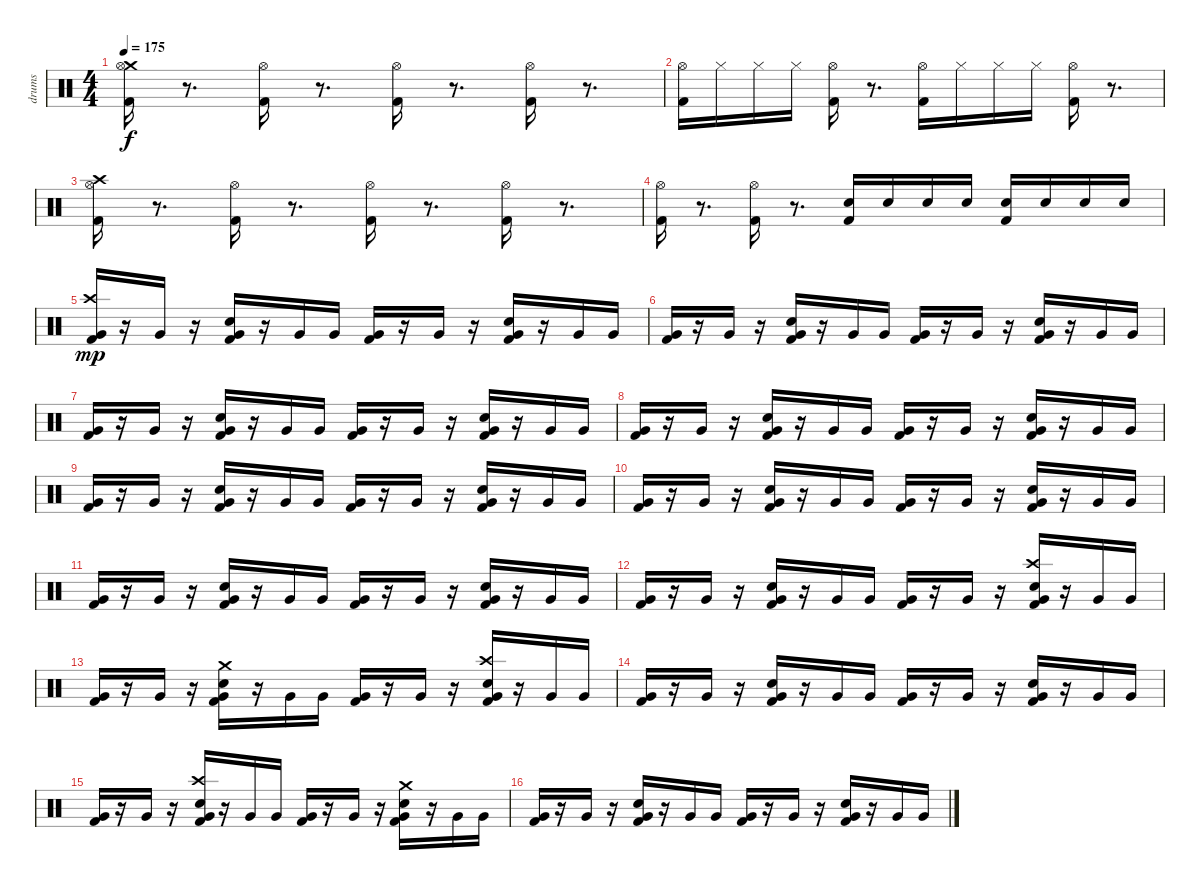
\track ("drums" "drums") {instrument percussion}
\staff {score}
\articulation defaults
\ts (4 4)
\tempo 175
\clef neutral
\ks c
("Crash medium (hit)" "Kick (hit) 2" "Hi-Hat (open)").16{dy f} r.8{d} ("Kick (hit) 2" "Hi-Hat (open)").16 r.8{d} ("Kick (hit) 2" "Hi-Hat (open)").16 r.8{d} ("Kick (hit) 2" "Hi-Hat (open)").16 r.8{d} |
("Kick (hit) 2" "Hi-Hat (open)").16 "Hi-Hat (closed)".16 "Hi-Hat (closed)".16 "Hi-Hat (closed)".16 ("Kick (hit) 2" "Hi-Hat (open)").16 r.8{d} ("Hi-Hat (open)" "Kick (hit) 2").16 "Hi-Hat (closed)".16 "Hi-Hat (closed)".16 "Hi-Hat (closed)".16 ("Hi-Hat (open)" "Kick (hit) 2").16 r.8{d} |
("Crash high (hit)" "Kick (hit) 2" "Hi-Hat (open)").16 r.8{d} ("Kick (hit) 2" "Hi-Hat (open)").16 r.8{d} ("Kick (hit) 2" "Hi-Hat (open)").16 r.8{d} ("Kick (hit) 2" "Hi-Hat (open)").16 r.8{d} |
("Kick (hit) 2" "Hi-Hat (open)").16 r.8{d} ("Kick (hit) 2" "Hi-Hat (open)").16 r.8{d} ("Electric Snare (hit)" "Kick (hit) 2").16 "Electric Snare (hit)".16 "Electric Snare (hit)".16 "Electric Snare (hit)".16 ("Electric Snare (hit)" "Kick (hit) 2").16 "Electric Snare (hit)".16 "Electric Snare (hit)".16 "Electric Snare (hit)".16 |
("Crash high (hit)" "Very Low Tom (hit)" "Kick (hit) 2").16{dy mp} r.16 "Very Low Tom (hit)".16 r.16 ("Very Low Tom (hit)" "Electric Snare (hit)" "Kick (hit) 2").16 r.16 "Very Low Tom (hit)".16 "Very Low Tom (hit)".16 ("Very Low Tom (hit)" "Kick (hit) 2").16 r.16 "Very Low Tom (hit)".16 r.16 ("Very Low Tom (hit)" "Electric Snare (hit)" "Kick (hit) 2").16 r.16 "Very Low Tom (hit)".16 "Very Low Tom (hit)".16 |
("Very Low Tom (hit)" "Kick (hit) 2").16 r.16 "Very Low Tom (hit)".16 r.16 ("Very Low Tom (hit)" "Electric Snare (hit)" "Kick (hit) 2").16 r.16 "Very Low Tom (hit)".16 "Very Low Tom (hit)".16 ("Very Low Tom (hit)" "Kick (hit) 2").16 r.16 "Very Low Tom (hit)".16 r.16 ("Very Low Tom (hit)" "Electric Snare (hit)" "Kick (hit) 2").16 r.16 "Very Low Tom (hit)".16 "Very Low Tom (hit)".16 |
("Very Low Tom (hit)" "Kick (hit) 2").16 r.16 "Very Low Tom (hit)".16 r.16 ("Very Low Tom (hit)" "Electric Snare (hit)" "Kick (hit) 2").16 r.16 "Very Low Tom (hit)".16 "Very Low Tom (hit)".16 ("Very Low Tom (hit)" "Kick (hit) 2").16 r.16 "Very Low Tom (hit)".16 r.16 ("Very Low Tom (hit)" "Electric Snare (hit)" "Kick (hit) 2").16 r.16 "Very Low Tom (hit)".16 "Very Low Tom (hit)".16 |
("Very Low Tom (hit)" "Kick (hit) 2").16 r.16 "Very Low Tom (hit)".16 r.16 ("Very Low Tom (hit)" "Electric Snare (hit)" "Kick (hit) 2").16 r.16 "Very Low Tom (hit)".16 "Very Low Tom (hit)".16 ("Very Low Tom (hit)" "Kick (hit) 2").16 r.16 "Very Low Tom (hit)".16 r.16 ("Very Low Tom (hit)" "Electric Snare (hit)" "Kick (hit) 2").16 r.16 "Very Low Tom (hit)".16 "Very Low Tom (hit)".16 |
("Very Low Tom (hit)" "Kick (hit) 2").16 r.16 "Very Low Tom (hit)".16 r.16 ("Very Low Tom (hit)" "Electric Snare (hit)" "Kick (hit) 2").16 r.16 "Very Low Tom (hit)".16 "Very Low Tom (hit)".16 ("Very Low Tom (hit)" "Kick (hit) 2").16 r.16 "Very Low Tom (hit)".16 r.16 ("Very Low Tom (hit)" "Electric Snare (hit)" "Kick (hit) 2").16 r.16 "Very Low Tom (hit)".16 "Very Low Tom (hit)".16 |
("Very Low Tom (hit)" "Kick (hit) 2").16 r.16 "Very Low Tom (hit)".16 r.16 ("Very Low Tom (hit)" "Electric Snare (hit)" "Kick (hit) 2").16 r.16 "Very Low Tom (hit)".16 "Very Low Tom (hit)".16 ("Very Low Tom (hit)" "Kick (hit) 2").16 r.16 "Very Low Tom (hit)".16 r.16 ("Very Low Tom (hit)" "Electric Snare (hit)" "Kick (hit) 2").16 r.16 "Very Low Tom (hit)".16 "Very Low Tom (hit)".16 |
("Very Low Tom (hit)" "Kick (hit) 2").16 r.16 "Very Low Tom (hit)".16 r.16 ("Very Low Tom (hit)" "Electric Snare (hit)" "Kick (hit) 2").16 r.16 "Very Low Tom (hit)".16 "Very Low Tom (hit)".16 ("Very Low Tom (hit)" "Kick (hit) 2").16 r.16 "Very Low Tom (hit)".16 r.16 ("Very Low Tom (hit)" "Electric Snare (hit)" "Kick (hit) 2").16 r.16 "Very Low Tom (hit)".16 "Very Low Tom (hit)".16 |
("Very Low Tom (hit)" "Kick (hit) 2").16 r.16 "Very Low Tom (hit)".16 r.16 ("Very Low Tom (hit)" "Electric Snare (hit)" "Kick (hit) 2").16 r.16 "Very Low Tom (hit)".16 "Very Low Tom (hit)".16 ("Very Low Tom (hit)" "Kick (hit) 2").16 r.16 "Very Low Tom (hit)".16 r.16 ("Crash high (hit)" "Very Low Tom (hit)" "Electric Snare (hit)" "Kick (hit) 2").16 r.16 "Very Low Tom (hit)".16 "Very Low Tom (hit)".16 |
("Kick (hit) 2" "Very Low Tom (hit)").16 r.16 "Very Low Tom (hit)".16 r.16 ("Crash medium (hit)" "Electric Snare (hit)" "Kick (hit) 2" "Very Low Tom (hit)").16 r.16 "Very Low Tom (hit)".16 "Very Low Tom (hit)".16 ("Kick (hit) 2" "Very Low Tom (hit)").16 r.16 "Very Low Tom (hit)".16 r.16 ("Crash high (hit)" "Electric Snare (hit)" "Kick (hit) 2" "Very Low Tom (hit)").16 r.16 "Very Low Tom (hit)".16 "Very Low Tom (hit)".16 |
("Kick (hit) 2" "Very Low Tom (hit)").16 r.16 "Very Low Tom (hit)".16 r.16 ("Electric Snare (hit)" "Kick (hit) 2" "Very Low Tom (hit)").16 r.16 "Very Low Tom (hit)".16 "Very Low Tom (hit)".16 ("Kick (hit) 2" "Very Low Tom (hit)").16 r.16 "Very Low Tom (hit)".16 r.16 ("Electric Snare (hit)" "Kick (hit) 2" "Very Low Tom (hit)").16 r.16 "Very Low Tom (hit)".16 "Very Low Tom (hit)".16 |
("Kick (hit) 2" "Very Low Tom (hit)").16 r.16 "Very Low Tom (hit)".16 r.16 ("Crash high (hit)" "Electric Snare (hit)" "Kick (hit) 2" "Very Low Tom (hit)").16 r.16 "Very Low Tom (hit)".16 "Very Low Tom (hit)".16 ("Kick (hit) 2" "Very Low Tom (hit)").16 r.16 "Very Low Tom (hit)".16 r.16 ("Crash medium (hit)" "Electric Snare (hit)" "Kick (hit) 2" "Very Low Tom (hit)").16 r.16 "Very Low Tom (hit)".16 "Very Low Tom (hit)".16 |
("Kick (hit) 2" "Very Low Tom (hit)").16 r.16 "Very Low Tom (hit)".16 r.16 ("Electric Snare (hit)" "Kick (hit) 2" "Very Low Tom (hit)").16 r.16 "Very Low Tom (hit)".16 "Very Low Tom (hit)".16 ("Kick (hit) 2" "Very Low Tom (hit)").16 r.16 "Very Low Tom (hit)".16 r.16 ("Electric Snare (hit)" "Kick (hit) 2" "Very Low Tom (hit)").16 r.16 "Very Low Tom (hit)".16 "Very Low Tom (hit)".16
